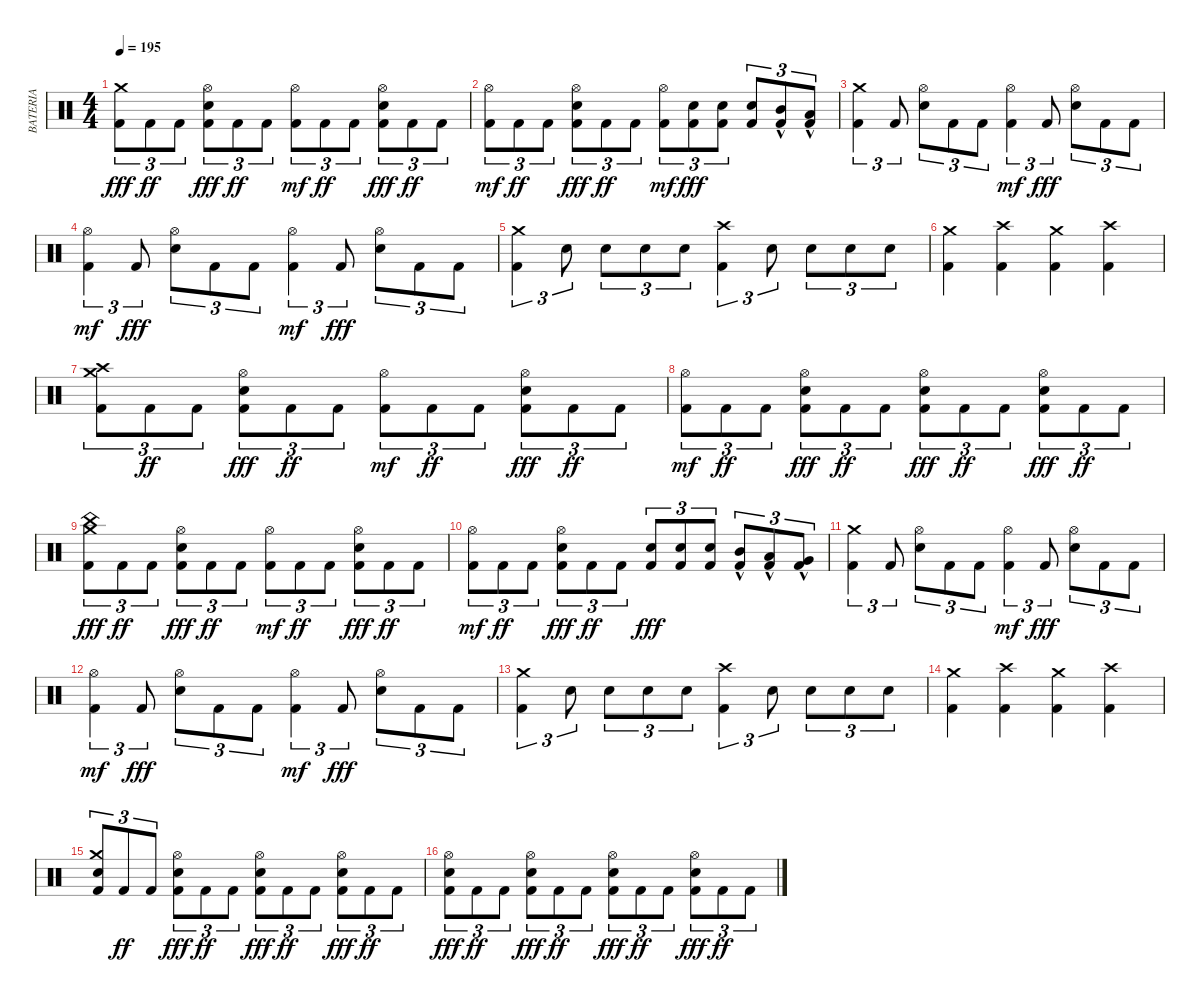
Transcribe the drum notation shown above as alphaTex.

\track ("BATERIA" "BATERIA") {instrument percussion}
\staff
\articulation defaults
\ts (4 4)
\tempo 195
\clef neutral
\ks c
("Kick (hit) 2" "Crash medium (hit)").8{tu (3 2) dy fff} "Kick (hit) 2".8{tu (3 2) dy ff} "Kick (hit) 2".8{tu (3 2)} ("Kick (hit) 2" "Electric Snare (hit)" "Hi-Hat (open)").8{tu (3 2) dy fff} "Kick (hit) 2".8{tu (3 2) dy ff} "Kick (hit) 2".8{tu (3 2)} ("Kick (hit) 2" "Hi-Hat (open)").8{tu (3 2) dy mf} "Kick (hit) 2".8{tu (3 2) dy ff} "Kick (hit) 2".8{tu (3 2)} ("Kick (hit) 2" "Electric Snare (hit)" "Hi-Hat (open)").8{tu (3 2) dy fff} "Kick (hit) 2".8{tu (3 2) dy ff} "Kick (hit) 2".8{tu (3 2)} |
("Kick (hit) 2" "Hi-Hat (open)").8{tu (3 2) dy mf} "Kick (hit) 2".8{tu (3 2) dy ff} "Kick (hit) 2".8{tu (3 2)} ("Kick (hit) 2" "Electric Snare (hit)" "Hi-Hat (open)").8{tu (3 2) dy fff} "Kick (hit) 2".8{tu (3 2) dy ff} "Kick (hit) 2".8{tu (3 2)} ("Kick (hit) 2" "Hi-Hat (open)").8{tu (3 2) dy mf} ("Kick (hit) 2" "Electric Snare (hit)").8{tu (3 2) dy fff} ("Kick (hit) 2" "Electric Snare (hit)").8{tu (3 2)} ("Kick (hit) 2" "Electric Snare (hit)").8{tu (3 2)} ("Kick (hit) 2" "Mid Tom (hit)"{hac}).8{tu (3 2)} ("Kick (hit) 2" "Low Tom (hit)"{hac}).8{tu (3 2)} |
("Kick (hit) 2" "Crash medium (hit)").4{tu (3 2)} "Kick (hit) 2".8{tu (3 2)} ("Electric Snare (hit)" "Hi-Hat (open)").8{tu (3 2)} "Kick (hit) 2".8{tu (3 2)} "Kick (hit) 2".8{tu (3 2)} ("Kick (hit) 2" "Hi-Hat (open)").4{tu (3 2) dy mf} "Kick (hit) 2".8{tu (3 2) dy fff} ("Electric Snare (hit)" "Hi-Hat (open)").8{tu (3 2)} "Kick (hit) 2".8{tu (3 2)} "Kick (hit) 2".8{tu (3 2)} |
("Kick (hit) 2" "Hi-Hat (open)").4{tu (3 2) dy mf} "Kick (hit) 2".8{tu (3 2) dy fff} ("Electric Snare (hit)" "Hi-Hat (open)").8{tu (3 2)} "Kick (hit) 2".8{tu (3 2)} "Kick (hit) 2".8{tu (3 2)} ("Kick (hit) 2" "Hi-Hat (open)").4{tu (3 2) dy mf} "Kick (hit) 2".8{tu (3 2) dy fff} ("Electric Snare (hit)" "Hi-Hat (open)").8{tu (3 2)} "Kick (hit) 2".8{tu (3 2)} "Kick (hit) 2".8{tu (3 2)} |
("Kick (hit) 2" "Crash medium (hit)").4{tu (3 2)} "Electric Snare (hit)".8{tu (3 2)} "Electric Snare (hit)".8{tu (3 2)} "Electric Snare (hit)".8{tu (3 2)} "Electric Snare (hit)".8{tu (3 2)} ("Kick (hit) 2" "Crash high (hit)").4{tu (3 2)} "Electric Snare (hit)".8{tu (3 2)} "Electric Snare (hit)".8{tu (3 2)} "Electric Snare (hit)".8{tu (3 2)} "Electric Snare (hit)".8{tu (3 2)} |
("Kick (hit) 2" "Crash medium (hit)").4 ("Kick (hit) 2" "Crash high (hit)").4 ("Kick (hit) 2" "Crash medium (hit)").4 ("Kick (hit) 2" "Crash high (hit)").4 |
("Kick (hit) 2" "Crash high (hit)" "Crash medium (hit)").8{tu (3 2)} "Kick (hit) 2".8{tu (3 2) dy ff} "Kick (hit) 2".8{tu (3 2)} ("Kick (hit) 2" "Electric Snare (hit)" "Hi-Hat (open)").8{tu (3 2) dy fff} "Kick (hit) 2".8{tu (3 2) dy ff} "Kick (hit) 2".8{tu (3 2)} ("Kick (hit) 2" "Hi-Hat (open)").8{tu (3 2) dy mf} "Kick (hit) 2".8{tu (3 2) dy ff} "Kick (hit) 2".8{tu (3 2)} ("Kick (hit) 2" "Electric Snare (hit)" "Hi-Hat (open)").8{tu (3 2) dy fff} "Kick (hit) 2".8{tu (3 2) dy ff} "Kick (hit) 2".8{tu (3 2)} |
("Kick (hit) 2" "Hi-Hat (open)").8{tu (3 2) dy mf} "Kick (hit) 2".8{tu (3 2) dy ff} "Kick (hit) 2".8{tu (3 2)} ("Kick (hit) 2" "Electric Snare (hit)" "Hi-Hat (open)").8{tu (3 2) dy fff} "Kick (hit) 2".8{tu (3 2) dy ff} "Kick (hit) 2".8{tu (3 2)} ("Kick (hit) 2" "Electric Snare (hit)" "Hi-Hat (open)").8{tu (3 2) dy fff} "Kick (hit) 2".8{tu (3 2) dy ff} "Kick (hit) 2".8{tu (3 2)} ("Kick (hit) 2" "Electric Snare (hit)" "Hi-Hat (open)").8{tu (3 2) dy fff} "Kick (hit) 2".8{tu (3 2) dy ff} "Kick (hit) 2".8{tu (3 2)} |
("Kick (hit) 2" "Crash medium (hit)" "China (hit)").8{tu (3 2) dy fff} "Kick (hit) 2".8{tu (3 2) dy ff} "Kick (hit) 2".8{tu (3 2)} ("Kick (hit) 2" "Electric Snare (hit)" "Hi-Hat (open)").8{tu (3 2) dy fff} "Kick (hit) 2".8{tu (3 2) dy ff} "Kick (hit) 2".8{tu (3 2)} ("Kick (hit) 2" "Hi-Hat (open)").8{tu (3 2) dy mf} "Kick (hit) 2".8{tu (3 2) dy ff} "Kick (hit) 2".8{tu (3 2)} ("Kick (hit) 2" "Electric Snare (hit)" "Hi-Hat (open)").8{tu (3 2) dy fff} "Kick (hit) 2".8{tu (3 2) dy ff} "Kick (hit) 2".8{tu (3 2)} |
("Kick (hit) 2" "Hi-Hat (open)").8{tu (3 2) dy mf} "Kick (hit) 2".8{tu (3 2) dy ff} "Kick (hit) 2".8{tu (3 2)} ("Kick (hit) 2" "Electric Snare (hit)" "Hi-Hat (open)").8{tu (3 2) dy fff} "Kick (hit) 2".8{tu (3 2) dy ff} "Kick (hit) 2".8{tu (3 2)} ("Kick (hit) 2" "Electric Snare (hit)").8{tu (3 2) dy fff} ("Kick (hit) 2" "Electric Snare (hit)").8{tu (3 2)} ("Kick (hit) 2" "Electric Snare (hit)").8{tu (3 2)} ("Kick (hit) 2" "Mid Tom (hit)"{hac}).8{tu (3 2)} ("Kick (hit) 2" "Low Tom (hit)"{hac}).8{tu (3 2)} ("Kick (hit) 2" "Very Low Tom (hit)"{hac}).8{tu (3 2)} |
("Kick (hit) 2" "Crash medium (hit)").4{tu (3 2)} "Kick (hit) 2".8{tu (3 2)} ("Electric Snare (hit)" "Hi-Hat (open)").8{tu (3 2)} "Kick (hit) 2".8{tu (3 2)} "Kick (hit) 2".8{tu (3 2)} ("Kick (hit) 2" "Hi-Hat (open)").4{tu (3 2) dy mf} "Kick (hit) 2".8{tu (3 2) dy fff} ("Electric Snare (hit)" "Hi-Hat (open)").8{tu (3 2)} "Kick (hit) 2".8{tu (3 2)} "Kick (hit) 2".8{tu (3 2)} |
("Kick (hit) 2" "Hi-Hat (open)").4{tu (3 2) dy mf} "Kick (hit) 2".8{tu (3 2) dy fff} ("Electric Snare (hit)" "Hi-Hat (open)").8{tu (3 2)} "Kick (hit) 2".8{tu (3 2)} "Kick (hit) 2".8{tu (3 2)} ("Kick (hit) 2" "Hi-Hat (open)").4{tu (3 2) dy mf} "Kick (hit) 2".8{tu (3 2) dy fff} ("Electric Snare (hit)" "Hi-Hat (open)").8{tu (3 2)} "Kick (hit) 2".8{tu (3 2)} "Kick (hit) 2".8{tu (3 2)} |
("Kick (hit) 2" "Crash medium (hit)").4{tu (3 2)} "Electric Snare (hit)".8{tu (3 2)} "Electric Snare (hit)".8{tu (3 2)} "Electric Snare (hit)".8{tu (3 2)} "Electric Snare (hit)".8{tu (3 2)} ("Kick (hit) 2" "Crash high (hit)").4{tu (3 2)} "Electric Snare (hit)".8{tu (3 2)} "Electric Snare (hit)".8{tu (3 2)} "Electric Snare (hit)".8{tu (3 2)} "Electric Snare (hit)".8{tu (3 2)} |
("Kick (hit) 2" "Crash medium (hit)").4 ("Kick (hit) 2" "Crash high (hit)").4 ("Kick (hit) 2" "Crash medium (hit)").4 ("Kick (hit) 2" "Crash high (hit)").4 |
("Kick (hit) 2" "Electric Snare (hit)" "Crash medium (hit)").8{tu (3 2)} "Kick (hit) 2".8{tu (3 2) dy ff} "Kick (hit) 2".8{tu (3 2)} ("Kick (hit) 2" "Electric Snare (hit)" "Hi-Hat (open)").8{tu (3 2) dy fff} "Kick (hit) 2".8{tu (3 2) dy ff} "Kick (hit) 2".8{tu (3 2)} ("Kick (hit) 2" "Electric Snare (hit)" "Hi-Hat (open)").8{tu (3 2) dy fff} "Kick (hit) 2".8{tu (3 2) dy ff} "Kick (hit) 2".8{tu (3 2)} ("Kick (hit) 2" "Electric Snare (hit)" "Hi-Hat (open)").8{tu (3 2) dy fff} "Kick (hit) 2".8{tu (3 2) dy ff} "Kick (hit) 2".8{tu (3 2)} |
("Kick (hit) 2" "Electric Snare (hit)" "Hi-Hat (open)").8{tu (3 2) dy fff} "Kick (hit) 2".8{tu (3 2) dy ff} "Kick (hit) 2".8{tu (3 2)} ("Kick (hit) 2" "Electric Snare (hit)" "Hi-Hat (open)").8{tu (3 2) dy fff} "Kick (hit) 2".8{tu (3 2) dy ff} "Kick (hit) 2".8{tu (3 2)} ("Kick (hit) 2" "Electric Snare (hit)" "Hi-Hat (open)").8{tu (3 2) dy fff} "Kick (hit) 2".8{tu (3 2) dy ff} "Kick (hit) 2".8{tu (3 2)} ("Kick (hit) 2" "Electric Snare (hit)" "Hi-Hat (open)").8{tu (3 2) dy fff} "Kick (hit) 2".8{tu (3 2) dy ff} "Kick (hit) 2".8{tu (3 2)}
